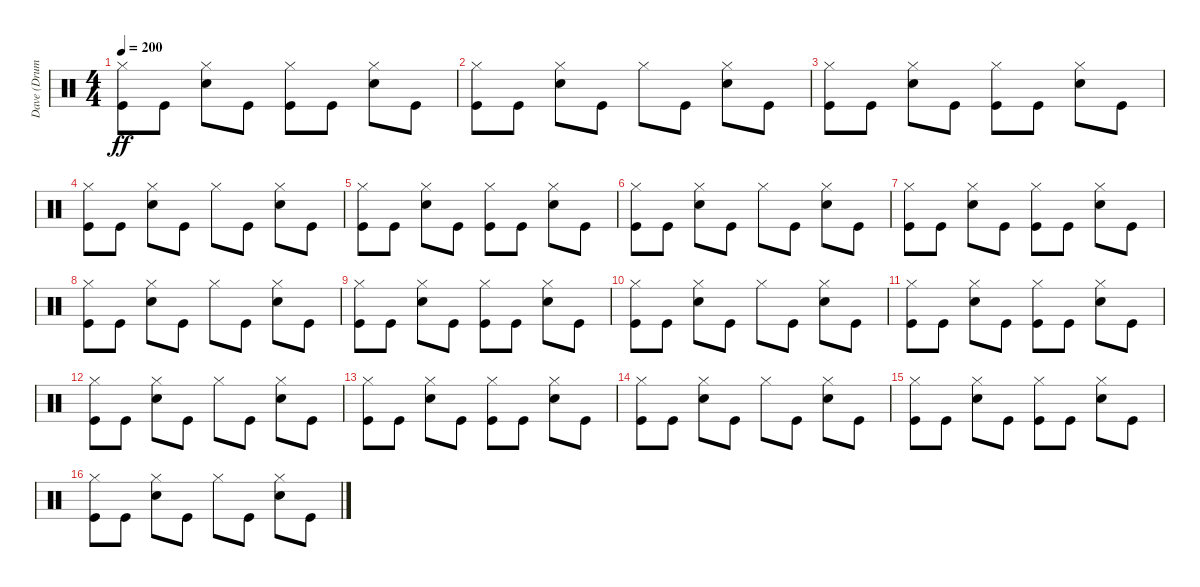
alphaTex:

\track ("Dave (Drums)" "Dave (Drum") {instrument percussion}
\staff {score}
\articulation defaults
\ts (4 4)
\tempo 200
\clef neutral
\ks c
("Hi-Hat (closed)" "Kick (hit)").8{dy ff} "Kick (hit)".8 ("Hi-Hat (closed)" "Snare (hit) 2").8 "Kick (hit)".8 ("Hi-Hat (closed)" "Kick (hit)").8 "Kick (hit)".8 ("Hi-Hat (closed)" "Snare (hit) 2").8 "Kick (hit)".8 |
("Hi-Hat (closed)" "Kick (hit)").8 "Kick (hit)".8 ("Hi-Hat (closed)" "Snare (hit) 2").8 "Kick (hit)".8 "Hi-Hat (closed)".8 "Kick (hit)".8 ("Hi-Hat (closed)" "Snare (hit) 2").8 "Kick (hit)".8 |
("Hi-Hat (closed)" "Kick (hit)").8 "Kick (hit)".8 ("Hi-Hat (closed)" "Snare (hit) 2").8 "Kick (hit)".8 ("Hi-Hat (closed)" "Kick (hit)").8 "Kick (hit)".8 ("Hi-Hat (closed)" "Snare (hit) 2").8 "Kick (hit)".8 |
("Hi-Hat (closed)" "Kick (hit)").8 "Kick (hit)".8 ("Hi-Hat (closed)" "Snare (hit) 2").8 "Kick (hit)".8 "Hi-Hat (closed)".8 "Kick (hit)".8 ("Hi-Hat (closed)" "Snare (hit) 2").8 "Kick (hit)".8 |
("Hi-Hat (closed)" "Kick (hit)").8 "Kick (hit)".8 ("Hi-Hat (closed)" "Snare (hit) 2").8 "Kick (hit)".8 ("Hi-Hat (closed)" "Kick (hit)").8 "Kick (hit)".8 ("Hi-Hat (closed)" "Snare (hit) 2").8 "Kick (hit)".8 |
("Hi-Hat (closed)" "Kick (hit)").8 "Kick (hit)".8 ("Hi-Hat (closed)" "Snare (hit) 2").8 "Kick (hit)".8 "Hi-Hat (closed)".8 "Kick (hit)".8 ("Hi-Hat (closed)" "Snare (hit) 2").8 "Kick (hit)".8 |
("Hi-Hat (closed)" "Kick (hit)").8 "Kick (hit)".8 ("Hi-Hat (closed)" "Snare (hit) 2").8 "Kick (hit)".8 ("Hi-Hat (closed)" "Kick (hit)").8 "Kick (hit)".8 ("Hi-Hat (closed)" "Snare (hit) 2").8 "Kick (hit)".8 |
("Hi-Hat (closed)" "Kick (hit)").8 "Kick (hit)".8 ("Hi-Hat (closed)" "Snare (hit) 2").8 "Kick (hit)".8 "Hi-Hat (closed)".8 "Kick (hit)".8 ("Hi-Hat (closed)" "Snare (hit) 2").8 "Kick (hit)".8 |
("Hi-Hat (closed)" "Kick (hit)").8 "Kick (hit)".8 ("Hi-Hat (closed)" "Snare (hit) 2").8 "Kick (hit)".8 ("Hi-Hat (closed)" "Kick (hit)").8 "Kick (hit)".8 ("Hi-Hat (closed)" "Snare (hit) 2").8 "Kick (hit)".8 |
("Hi-Hat (closed)" "Kick (hit)").8 "Kick (hit)".8 ("Hi-Hat (closed)" "Snare (hit) 2").8 "Kick (hit)".8 "Hi-Hat (closed)".8 "Kick (hit)".8 ("Hi-Hat (closed)" "Snare (hit) 2").8 "Kick (hit)".8 |
("Hi-Hat (closed)" "Kick (hit)").8 "Kick (hit)".8 ("Hi-Hat (closed)" "Snare (hit) 2").8 "Kick (hit)".8 ("Hi-Hat (closed)" "Kick (hit)").8 "Kick (hit)".8 ("Hi-Hat (closed)" "Snare (hit) 2").8 "Kick (hit)".8 |
("Hi-Hat (closed)" "Kick (hit)").8 "Kick (hit)".8 ("Hi-Hat (closed)" "Snare (hit) 2").8 "Kick (hit)".8 "Hi-Hat (closed)".8 "Kick (hit)".8 ("Hi-Hat (closed)" "Snare (hit) 2").8 "Kick (hit)".8 |
("Hi-Hat (closed)" "Kick (hit)").8 "Kick (hit)".8 ("Hi-Hat (closed)" "Snare (hit) 2").8 "Kick (hit)".8 ("Hi-Hat (closed)" "Kick (hit)").8 "Kick (hit)".8 ("Hi-Hat (closed)" "Snare (hit) 2").8 "Kick (hit)".8 |
("Hi-Hat (closed)" "Kick (hit)").8 "Kick (hit)".8 ("Hi-Hat (closed)" "Snare (hit) 2").8 "Kick (hit)".8 "Hi-Hat (closed)".8 "Kick (hit)".8 ("Hi-Hat (closed)" "Snare (hit) 2").8 "Kick (hit)".8 |
("Hi-Hat (closed)" "Kick (hit)").8 "Kick (hit)".8 ("Hi-Hat (closed)" "Snare (hit) 2").8 "Kick (hit)".8 ("Hi-Hat (closed)" "Kick (hit)").8 "Kick (hit)".8 ("Hi-Hat (closed)" "Snare (hit) 2").8 "Kick (hit)".8 |
("Hi-Hat (closed)" "Kick (hit)").8 "Kick (hit)".8 ("Hi-Hat (closed)" "Snare (hit) 2").8 "Kick (hit)".8 "Hi-Hat (closed)".8 "Kick (hit)".8 ("Hi-Hat (closed)" "Snare (hit) 2").8 "Kick (hit)".8
